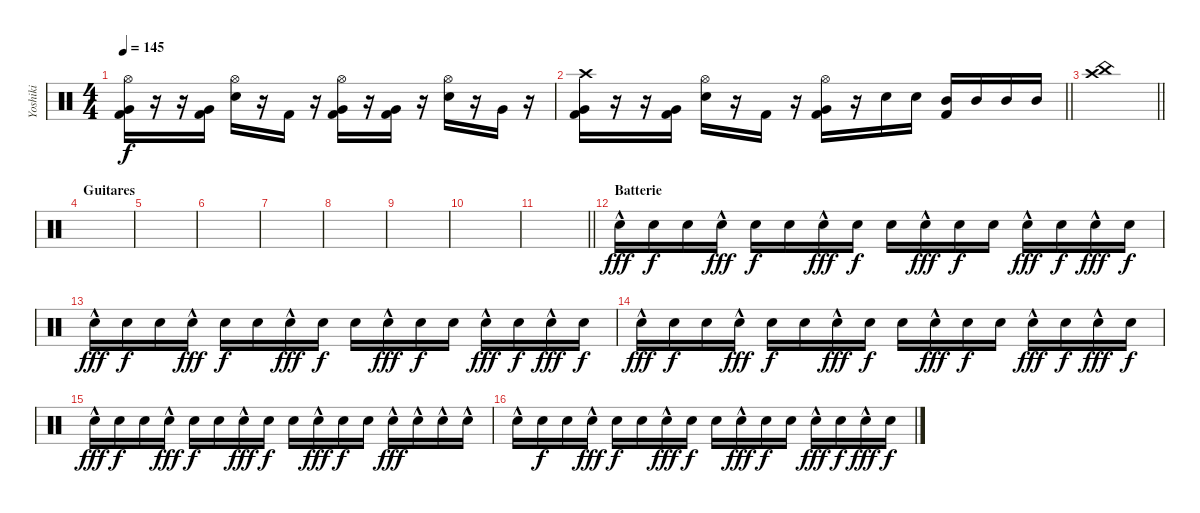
\track ("Yoshiki" "Yoshiki") {instrument percussion}
\staff {score}
\articulation defaults
\ts (4 4)
\tempo 145
\clef neutral
\ks c
("Hi-Hat (open)" "Very Low Tom (hit)" "Kick (hit) 2").16{dy f} r.16 r.16 ("Very Low Tom (hit)" "Kick (hit) 2").16 ("Hi-Hat (open)" "Snare (hit) 2").16 r.16 "Kick (hit) 2".16 r.16 ("Hi-Hat (open)" "Very Low Tom (hit)" "Kick (hit) 2").16 r.16 ("Very Low Tom (hit)" "Kick (hit) 2").16 r.16 ("Hi-Hat (open)" "Snare (hit) 2").16 r.16 "Very Low Tom (hit)".16 r.16 |
\barLineRight lightlight
("Crash high (hit)" "Very Low Tom (hit)" "Kick (hit) 2").16 r.16 r.16 ("Very Low Tom (hit)" "Kick (hit) 2").16 ("Hi-Hat (open)" "Snare (hit) 2").16 r.16 "Kick (hit) 2".16 r.16 ("Hi-Hat (open)" "Very Low Tom (hit)" "Kick (hit) 2").16 r.16 "Snare (hit) 2".16 "Snare (hit) 2".16 ("Mid Tom (hit)" "Kick (hit) 2").16 "Mid Tom (hit)".16 "Mid Tom (hit)".16 "Mid Tom (hit)".16 |
\section ("" "")
\barLineRight lightlight
("Crash high (hit)" "China (hit)").1 |
\section ("" "Guitares")
|
|
|
|
|
|
|
\barLineRight lightlight
|
\section ("" "Batterie")
"Snare (hit) 2"{hac}.16{dy fff} "Snare (hit) 2".16{dy f} "Snare (hit) 2".16 "Snare (hit) 2"{hac}.16{dy fff} "Snare (hit) 2".16{dy f} "Snare (hit) 2".16 "Snare (hit) 2"{hac}.16{dy fff} "Snare (hit) 2".16{dy f} "Snare (hit) 2".16 "Snare (hit) 2"{hac}.16{dy fff} "Snare (hit) 2".16{dy f} "Snare (hit) 2".16 "Snare (hit) 2"{hac}.16{dy fff} "Snare (hit) 2".16{dy f} "Snare (hit) 2"{hac}.16{dy fff} "Snare (hit) 2".16{dy f} |
"Snare (hit) 2"{hac}.16{dy fff} "Snare (hit) 2".16{dy f} "Snare (hit) 2".16 "Snare (hit) 2"{hac}.16{dy fff} "Snare (hit) 2".16{dy f} "Snare (hit) 2".16 "Snare (hit) 2"{hac}.16{dy fff} "Snare (hit) 2".16{dy f} "Snare (hit) 2".16 "Snare (hit) 2"{hac}.16{dy fff} "Snare (hit) 2".16{dy f} "Snare (hit) 2".16 "Snare (hit) 2"{hac}.16{dy fff} "Snare (hit) 2".16{dy f} "Snare (hit) 2"{hac}.16{dy fff} "Snare (hit) 2".16{dy f} |
"Snare (hit) 2"{hac}.16{dy fff} "Snare (hit) 2".16{dy f} "Snare (hit) 2".16 "Snare (hit) 2"{hac}.16{dy fff} "Snare (hit) 2".16{dy f} "Snare (hit) 2".16 "Snare (hit) 2"{hac}.16{dy fff} "Snare (hit) 2".16{dy f} "Snare (hit) 2".16 "Snare (hit) 2"{hac}.16{dy fff} "Snare (hit) 2".16{dy f} "Snare (hit) 2".16 "Snare (hit) 2"{hac}.16{dy fff} "Snare (hit) 2".16{dy f} "Snare (hit) 2"{hac}.16{dy fff} "Snare (hit) 2".16{dy f} |
"Snare (hit) 2"{hac}.16{dy fff} "Snare (hit) 2".16{dy f} "Snare (hit) 2".16 "Snare (hit) 2"{hac}.16{dy fff} "Snare (hit) 2".16{dy f} "Snare (hit) 2".16 "Snare (hit) 2"{hac}.16{dy fff} "Snare (hit) 2".16{dy f} "Snare (hit) 2".16 "Snare (hit) 2"{hac}.16{dy fff} "Snare (hit) 2".16{dy f} "Snare (hit) 2".16 "Snare (hit) 2"{hac}.16{dy fff} "Snare (hit) 2"{hac}.16 "Snare (hit) 2"{hac}.16 "Snare (hit) 2"{hac}.16 |
"Snare (hit) 2"{hac}.16 "Snare (hit) 2".16{dy f} "Snare (hit) 2".16 "Snare (hit) 2"{hac}.16{dy fff} "Snare (hit) 2".16{dy f} "Snare (hit) 2".16 "Snare (hit) 2"{hac}.16{dy fff} "Snare (hit) 2".16{dy f} "Snare (hit) 2".16 "Snare (hit) 2"{hac}.16{dy fff} "Snare (hit) 2".16{dy f} "Snare (hit) 2".16 "Snare (hit) 2"{hac}.16{dy fff} "Snare (hit) 2".16{dy f} "Snare (hit) 2"{hac}.16{dy fff} "Snare (hit) 2".16{dy f}
